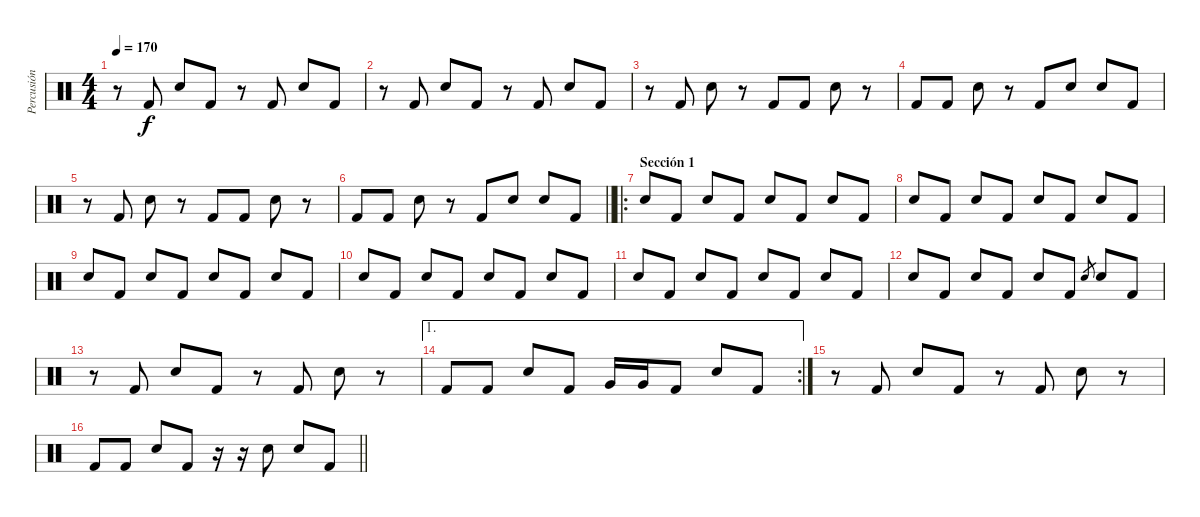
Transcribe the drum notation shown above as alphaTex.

\track ("Percusión" "Percusión") {instrument percussion}
\staff {score}
\articulation defaults
\ts (4 4)
\tempo 170
\clef neutral
\ks c
r.8{dy f} "Kick (hit) 2".8 "Electric Snare (hit)".8 "Kick (hit) 2".8 r.8 "Kick (hit) 2".8 "Electric Snare (hit)".8 "Kick (hit) 2".8 |
r.8 "Kick (hit) 2".8 "Electric Snare (hit)".8 "Kick (hit) 2".8 r.8 "Kick (hit) 2".8 "Electric Snare (hit)".8 "Kick (hit) 2".8 |
r.8 "Kick (hit) 2".8 "Electric Snare (hit)".8 r.8 "Kick (hit) 2".8 "Kick (hit) 2".8 "Electric Snare (hit)".8 r.8 |
"Kick (hit) 2".8 "Kick (hit) 2".8 "Electric Snare (hit)".8 r.8 "Kick (hit) 2".8 "Electric Snare (hit)".8 "Electric Snare (hit)".8 "Kick (hit) 2".8 |
r.8 "Kick (hit) 2".8 "Electric Snare (hit)".8 r.8 "Kick (hit) 2".8 "Kick (hit) 2".8 "Electric Snare (hit)".8 r.8 |
\barLineRight lightlight "Kick (hit) 2".8 "Kick (hit) 2".8 "Electric Snare (hit)".8
r.8 "Kick (hit) 2".8 "Electric Snare (hit)".8 "Electric Snare (hit)".8 "Kick (hit) 2".8 |
\ro
\section ("" "Sección 1")
"Electric Snare (hit)".8 "Kick (hit) 2".8 "Electric Snare (hit)".8 "Kick (hit) 2".8 "Electric Snare (hit)".8 "Kick (hit) 2".8 "Electric Snare (hit)".8 "Kick (hit) 2".8 |
"Electric Snare (hit)".8 "Kick (hit) 2".8 "Electric Snare (hit)".8 "Kick (hit) 2".8 "Electric Snare (hit)".8 "Kick (hit) 2".8 "Electric Snare (hit)".8 "Kick (hit) 2".8 |
"Electric Snare (hit)".8 "Kick (hit) 2".8 "Electric Snare (hit)".8 "Kick (hit) 2".8 "Electric Snare (hit)".8 "Kick (hit) 2".8 "Electric Snare (hit)".8 "Kick (hit) 2".8 |
"Electric Snare (hit)".8 "Kick (hit) 2".8 "Electric Snare (hit)".8 "Kick (hit) 2".8 "Electric Snare (hit)".8 "Kick (hit) 2".8 "Electric Snare (hit)".8 "Kick (hit) 2".8 |
"Electric Snare (hit)".8 "Kick (hit) 2".8 "Electric Snare (hit)".8 "Kick (hit) 2".8 "Electric Snare (hit)".8 "Kick (hit) 2".8 "Electric Snare (hit)".8 "Kick (hit) 2".8 |
"Electric Snare (hit)".8 "Kick (hit) 2".8 "Electric Snare (hit)".8 "Kick (hit) 2".8 "Electric Snare (hit)".8 "Kick (hit) 2".8 "Electric Snare (hit)".8{gr} "Electric Snare (hit)".8 "Kick (hit) 2".8 |
r.8 "Kick (hit) 2".8 "Electric Snare (hit)".8 "Kick (hit) 2".8 r.8 "Kick (hit) 2".8 "Electric Snare (hit)".8 r.8 |
\ae 1
\rc 2 "Kick (hit) 2".8 "Kick (hit) 2".8 "Electric Snare (hit)".8 "Kick (hit) 2".8 "Very Low Tom (hit)".16 "Very Low Tom (hit)".16 "Kick (hit) 2".8 "Electric Snare (hit)".8 "Kick (hit) 2".8
|
r.8 "Kick (hit) 2".8 "Electric Snare (hit)".8 "Kick (hit) 2".8 r.8 "Kick (hit) 2".8 "Electric Snare (hit)".8 r.8 |
\barLineRight lightlight "Kick (hit) 2".8 "Kick (hit) 2".8 "Electric Snare (hit)".8 "Kick (hit) 2".8
r.16 r.16 "Electric Snare (hit)".8 "Electric Snare (hit)".8 "Kick (hit) 2".8
